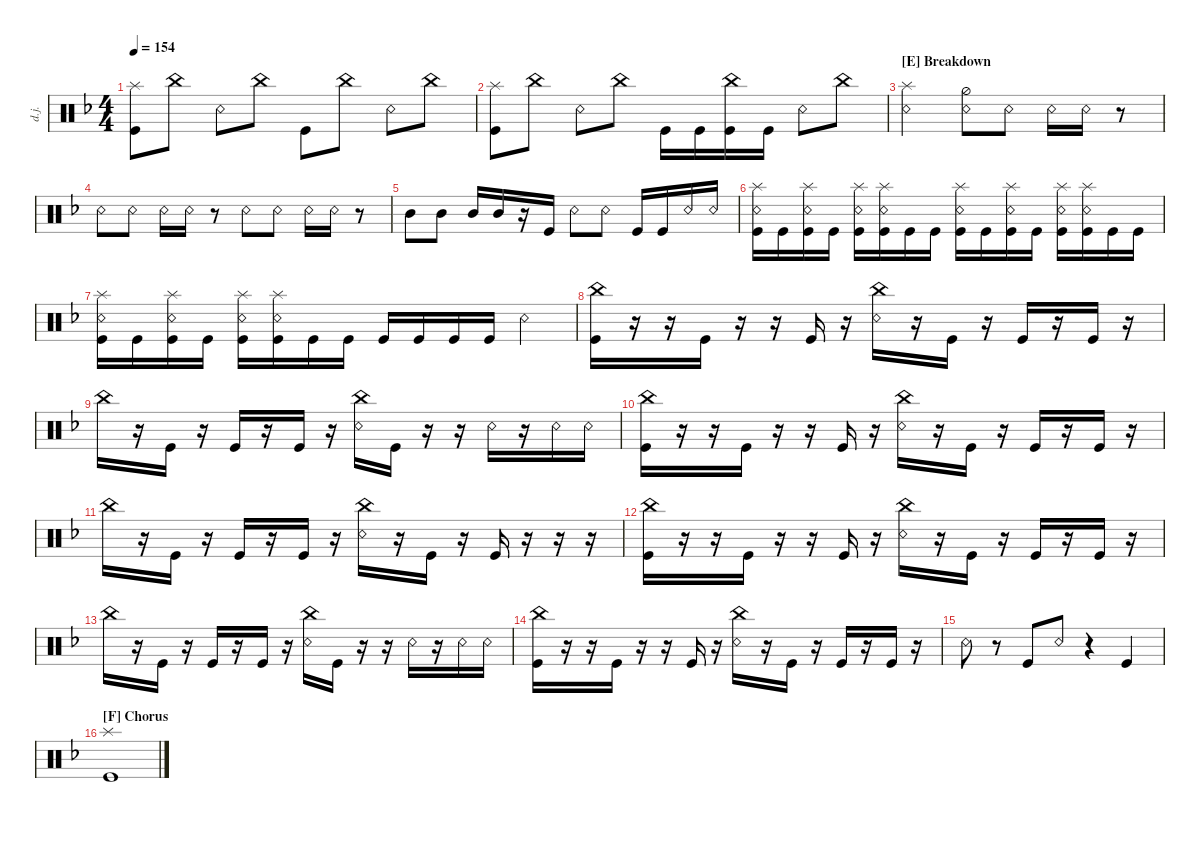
\defaultSystemsLayout 4
\hideDynamics
\bracketExtendMode nobrackets
\otherSystemsTrackNameOrientation horizontal
\track ("Drumkit Jason" "d.j.") {instrument percussion}
\staff {score}
\articulation defaults
\ts (4 4)
\tempo 154
\clef neutral
\ks dminor
("Splash (hit)" "Kick (hit)").8{dy ff} "China (hit)".8 "Snare (rim shot)".8 "China (hit)".8 "Kick (hit)".8 "China (hit)".8 "Snare (rim shot)".8 "China (hit)".8 |
("Splash (hit)" "Kick (hit)").8 "China (hit)".8 "Snare (rim shot)".8 "China (hit)".8 "Kick (hit)".16 "Kick (hit)".16 ("China (hit)" "Kick (hit)").16 "Kick (hit)".16 "Snare (rim shot)".8 "China (hit)".8 |
\section ("E" "Breakdown")
("Snare (rim shot)" "Splash (hit)").2 ("Snare (rim shot)" "Hi-Hat (half)").8 "Snare (rim shot)".8 "Snare (rim shot)".16 "Snare (rim shot)".16 r.8 |
"Snare (rim shot)".8 "Snare (rim shot)".8 "Snare (rim shot)".16 "Snare (rim shot)".16 r.8 "Snare (rim shot)".8 "Snare (rim shot)".8 "Snare (rim shot)".16 "Snare (rim shot)".16 r.8 |
"Mid Tom (hit)".8 "Mid Tom (hit)".8 "Mid Tom (hit)".16 "Mid Tom (hit)".16 r.16 "Kick (hit)".16 "Snare (rim shot)".8 "Snare (rim shot)".8 "Kick (hit)".16 "Kick (hit)".16 "Snare (rim shot)".16 "Snare (rim shot)".16 |
("Kick (hit)" "Snare (rim shot)" "Splash (hit)").16 "Kick (hit)".16 ("Kick (hit)" "Snare (rim shot)" "Splash (hit)").16 "Kick (hit)".16 ("Kick (hit)" "Snare (rim shot)" "Splash (hit)").16 ("Kick (hit)" "Snare (rim shot)" "Splash (hit)").16 "Kick (hit)".16 "Kick (hit)".16 ("Kick (hit)" "Snare (rim shot)" "Splash (hit)").16 "Kick (hit)".16 ("Kick (hit)" "Snare (rim shot)" "Splash (hit)").16 "Kick (hit)".16 ("Kick (hit)" "Snare (rim shot)" "Splash (hit)").16 ("Kick (hit)" "Snare (rim shot)" "Splash (hit)").16 "Kick (hit)".16 "Kick (hit)".16 |
("Kick (hit)" "Snare (rim shot)" "Splash (hit)").16 "Kick (hit)".16 ("Kick (hit)" "Snare (rim shot)" "Splash (hit)").16 "Kick (hit)".16 ("Kick (hit)" "Snare (rim shot)" "Splash (hit)").16 ("Kick (hit)" "Snare (rim shot)" "Splash (hit)").16 "Kick (hit)".16 "Kick (hit)".16 "Kick (hit)".16 "Kick (hit)".16 "Kick (hit)".16 "Kick (hit)".16 "Snare (rim shot)".4 |
("Kick (hit)" "China (hit)").16 r.16 r.16 "Kick (hit)".16 r.16 r.16 "Kick (hit)".16 r.16 ("Snare (rim shot)" "China (hit)").16 r.16 "Kick (hit)".16 r.16 "Kick (hit)".16 r.16 "Kick (hit)".16 r.16 |
"China (hit)".16 r.16 "Kick (hit)".16 r.16 "Kick (hit)".16 r.16 "Kick (hit)".16 r.16 ("Snare (rim shot)" "China (hit)").16 "Kick (hit)".16 r.16 r.16 "Snare (rim shot)".16 r.16 "Snare (rim shot)".16 "Snare (rim shot)".16 |
("Kick (hit)" "China (hit)").16 r.16 r.16 "Kick (hit)".16 r.16 r.16 "Kick (hit)".16 r.16 ("Snare (rim shot)" "China (hit)").16 r.16 "Kick (hit)".16 r.16 "Kick (hit)".16 r.16 "Kick (hit)".16 r.16 |
"China (hit)".16 r.16 "Kick (hit)".16 r.16 "Kick (hit)".16 r.16 "Kick (hit)".16 r.16 ("Snare (rim shot)" "China (hit)").16 r.16 "Kick (hit)".16 r.16 "Kick (hit)".16 r.16 r.16 r.16 |
("Kick (hit)" "China (hit)").16 r.16 r.16 "Kick (hit)".16 r.16 r.16 "Kick (hit)".16 r.16 ("Snare (rim shot)" "China (hit)").16 r.16 "Kick (hit)".16 r.16 "Kick (hit)".16 r.16 "Kick (hit)".16 r.16 |
"China (hit)".16 r.16 "Kick (hit)".16 r.16 "Kick (hit)".16 r.16 "Kick (hit)".16 r.16 ("Snare (rim shot)" "China (hit)").16 "Kick (hit)".16 r.16 r.16 "Snare (rim shot)".16 r.16 "Snare (rim shot)".16 "Snare (rim shot)".16 |
("Kick (hit)" "China (hit)").16 r.16 r.16 "Kick (hit)".16 r.16 r.16 "Kick (hit)".16 r.16 ("Snare (rim shot)" "China (hit)").16 r.16 "Kick (hit)".16 r.16 "Kick (hit)".16 r.16 "Kick (hit)".16 r.16 |
"Snare (rim shot)".8 r.8 "Kick (hit)".8 "Snare (rim shot)".8 r.4 "Kick (hit)".4 |
\section ("F" "Chorus")
("Splash (hit)" "Kick (hit)").1
